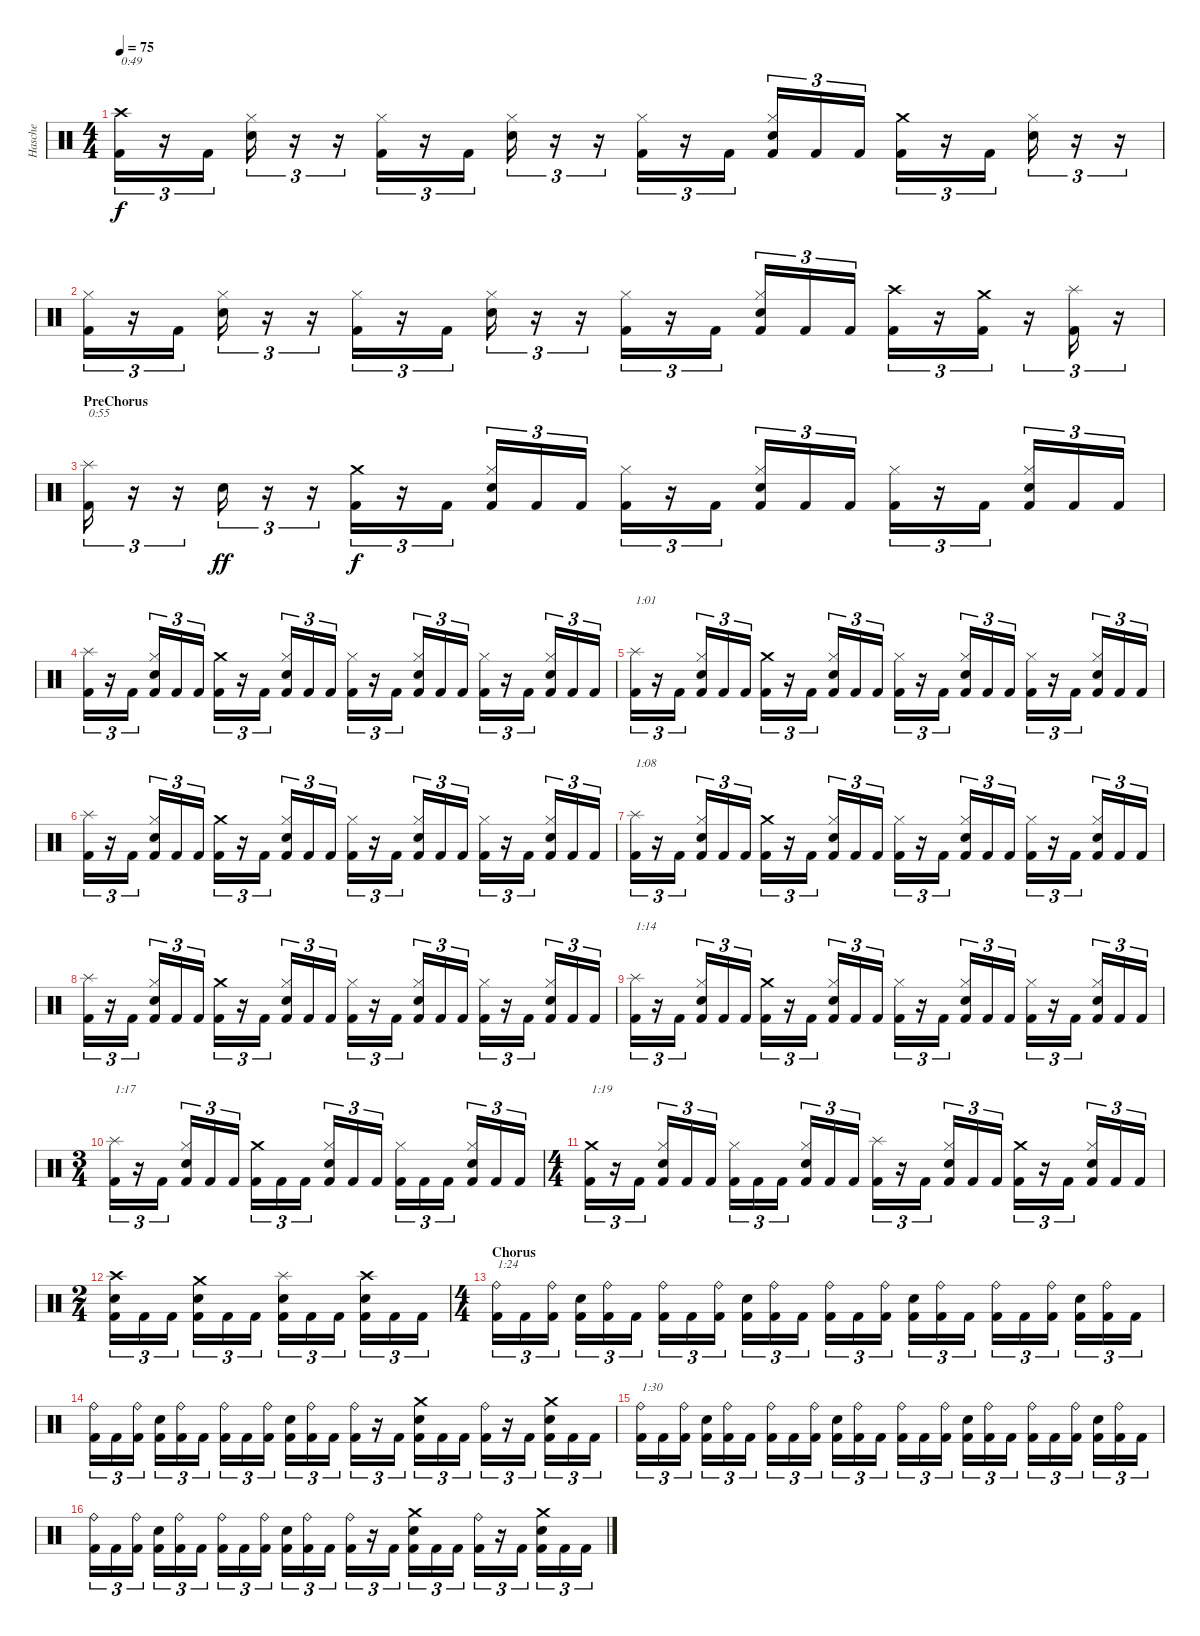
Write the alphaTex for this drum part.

\track ("Hasche" "Hasche") {instrument percussion}
\staff {score}
\articulation defaults
\ts (4 4)
\tempo 75
\clef neutral
\ks c
("Crash high (hit)" "Kick (hit) 2").16{tu (3 2) txt "0:49" dy f} r.16{tu (3 2)} "Kick (hit) 2".16{tu (3 2)} ("Hi-Hat (closed)" "Snare (hit) 2").16{tu (3 2)} r.16{tu (3 2)} r.16{tu (3 2)} ("Hi-Hat (closed)" "Kick (hit) 2").16{tu (3 2)} r.16{tu (3 2)} "Kick (hit) 2".16{tu (3 2)} ("Hi-Hat (closed)" "Snare (hit) 2").16{tu (3 2)} r.16{tu (3 2)} r.16{tu (3 2)} ("Hi-Hat (closed)" "Kick (hit) 2").16{tu (3 2)} r.16{tu (3 2)} "Kick (hit) 2".16{tu (3 2)} ("Hi-Hat (closed)" "Snare (hit) 2" "Kick (hit) 2").16{tu (3 2)} "Kick (hit) 2".16{tu (3 2)} "Kick (hit) 2".16{tu (3 2)} ("Crash medium (hit)" "Kick (hit) 2").16{tu (3 2)} r.16{tu (3 2)} "Kick (hit) 2".16{tu (3 2)} ("Hi-Hat (closed)" "Snare (hit) 2").16{tu (3 2)} r.16{tu (3 2)} r.16{tu (3 2)} |
("Hi-Hat (closed)" "Kick (hit) 2").16{tu (3 2)} r.16{tu (3 2)} "Kick (hit) 2".16{tu (3 2)} ("Hi-Hat (closed)" "Snare (hit) 2").16{tu (3 2)} r.16{tu (3 2)} r.16{tu (3 2)} ("Hi-Hat (closed)" "Kick (hit) 2").16{tu (3 2)} r.16{tu (3 2)} "Kick (hit) 2".16{tu (3 2)} ("Hi-Hat (closed)" "Snare (hit) 2").16{tu (3 2)} r.16{tu (3 2)} r.16{tu (3 2)} ("Hi-Hat (closed)" "Kick (hit) 2").16{tu (3 2)} r.16{tu (3 2)} "Kick (hit) 2".16{tu (3 2)} ("Hi-Hat (closed)" "Snare (hit) 2" "Kick (hit) 2").16{tu (3 2)} "Kick (hit) 2".16{tu (3 2)} "Kick (hit) 2".16{tu (3 2)} ("Crash high (hit)" "Kick (hit) 2").16{tu (3 2)} r.16{tu (3 2)} ("Crash medium (hit)" "Kick (hit) 2").16{tu (3 2)} r.16{tu (3 2)} ("Splash (hit)" "Kick (hit) 2").16{tu (3 2)} r.16{tu (3 2)} |
\section ("" "PreChorus")
("Splash (hit)" "Kick (hit) 2").16{tu (3 2) txt "0:55"} r.16{tu (3 2)} r.16{tu (3 2)} "Snare (hit) 2".16{tu (3 2) dy ff} r.16{tu (3 2)} r.16{tu (3 2)} ("Crash medium (hit)" "Kick (hit) 2").16{tu (3 2) dy f} r.16{tu (3 2)} "Kick (hit) 2".16{tu (3 2)} ("Hi-Hat (closed)" "Snare (hit) 2" "Kick (hit) 2").16{tu (3 2)} "Kick (hit) 2".16{tu (3 2)} "Kick (hit) 2".16{tu (3 2)} ("Hi-Hat (closed)" "Kick (hit) 2").16{tu (3 2)} r.16{tu (3 2)} "Kick (hit) 2".16{tu (3 2)} ("Hi-Hat (closed)" "Snare (hit) 2" "Kick (hit) 2").16{tu (3 2)} "Kick (hit) 2".16{tu (3 2)} "Kick (hit) 2".16{tu (3 2)} ("Hi-Hat (closed)" "Kick (hit) 2").16{tu (3 2)} r.16{tu (3 2)} "Kick (hit) 2".16{tu (3 2)} ("Hi-Hat (closed)" "Snare (hit) 2" "Kick (hit) 2").16{tu (3 2)} "Kick (hit) 2".16{tu (3 2)} "Kick (hit) 2".16{tu (3 2)} |
("Splash (hit)" "Kick (hit) 2").16{tu (3 2)} r.16{tu (3 2)} "Kick (hit) 2".16{tu (3 2)} ("Hi-Hat (closed)" "Snare (hit) 2" "Kick (hit) 2").16{tu (3 2)} "Kick (hit) 2".16{tu (3 2)} "Kick (hit) 2".16{tu (3 2)} ("Crash medium (hit)" "Kick (hit) 2").16{tu (3 2)} r.16{tu (3 2)} "Kick (hit) 2".16{tu (3 2)} ("Hi-Hat (closed)" "Snare (hit) 2" "Kick (hit) 2").16{tu (3 2)} "Kick (hit) 2".16{tu (3 2)} "Kick (hit) 2".16{tu (3 2)} ("Hi-Hat (closed)" "Kick (hit) 2").16{tu (3 2)} r.16{tu (3 2)} "Kick (hit) 2".16{tu (3 2)} ("Hi-Hat (closed)" "Snare (hit) 2" "Kick (hit) 2").16{tu (3 2)} "Kick (hit) 2".16{tu (3 2)} "Kick (hit) 2".16{tu (3 2)} ("Hi-Hat (closed)" "Kick (hit) 2").16{tu (3 2)} r.16{tu (3 2)} "Kick (hit) 2".16{tu (3 2)} ("Hi-Hat (closed)" "Snare (hit) 2" "Kick (hit) 2").16{tu (3 2)} "Kick (hit) 2".16{tu (3 2)} "Kick (hit) 2".16{tu (3 2)} |
("Splash (hit)" "Kick (hit) 2").16{tu (3 2) txt "1:01"} r.16{tu (3 2)} "Kick (hit) 2".16{tu (3 2)} ("Hi-Hat (closed)" "Snare (hit) 2" "Kick (hit) 2").16{tu (3 2)} "Kick (hit) 2".16{tu (3 2)} "Kick (hit) 2".16{tu (3 2)} ("Crash medium (hit)" "Kick (hit) 2").16{tu (3 2)} r.16{tu (3 2)} "Kick (hit) 2".16{tu (3 2)} ("Hi-Hat (closed)" "Snare (hit) 2" "Kick (hit) 2").16{tu (3 2)} "Kick (hit) 2".16{tu (3 2)} "Kick (hit) 2".16{tu (3 2)} ("Hi-Hat (closed)" "Kick (hit) 2").16{tu (3 2)} r.16{tu (3 2)} "Kick (hit) 2".16{tu (3 2)} ("Hi-Hat (closed)" "Snare (hit) 2" "Kick (hit) 2").16{tu (3 2)} "Kick (hit) 2".16{tu (3 2)} "Kick (hit) 2".16{tu (3 2)} ("Hi-Hat (closed)" "Kick (hit) 2").16{tu (3 2)} r.16{tu (3 2)} "Kick (hit) 2".16{tu (3 2)} ("Hi-Hat (closed)" "Snare (hit) 2" "Kick (hit) 2").16{tu (3 2)} "Kick (hit) 2".16{tu (3 2)} "Kick (hit) 2".16{tu (3 2)} |
("Splash (hit)" "Kick (hit) 2").16{tu (3 2)} r.16{tu (3 2)} "Kick (hit) 2".16{tu (3 2)} ("Hi-Hat (closed)" "Snare (hit) 2" "Kick (hit) 2").16{tu (3 2)} "Kick (hit) 2".16{tu (3 2)} "Kick (hit) 2".16{tu (3 2)} ("Crash medium (hit)" "Kick (hit) 2").16{tu (3 2)} r.16{tu (3 2)} "Kick (hit) 2".16{tu (3 2)} ("Hi-Hat (closed)" "Snare (hit) 2" "Kick (hit) 2").16{tu (3 2)} "Kick (hit) 2".16{tu (3 2)} "Kick (hit) 2".16{tu (3 2)} ("Hi-Hat (closed)" "Kick (hit) 2").16{tu (3 2)} r.16{tu (3 2)} "Kick (hit) 2".16{tu (3 2)} ("Hi-Hat (closed)" "Snare (hit) 2" "Kick (hit) 2").16{tu (3 2)} "Kick (hit) 2".16{tu (3 2)} "Kick (hit) 2".16{tu (3 2)} ("Hi-Hat (closed)" "Kick (hit) 2").16{tu (3 2)} r.16{tu (3 2)} "Kick (hit) 2".16{tu (3 2)} ("Hi-Hat (closed)" "Snare (hit) 2" "Kick (hit) 2").16{tu (3 2)} "Kick (hit) 2".16{tu (3 2)} "Kick (hit) 2".16{tu (3 2)} |
("Splash (hit)" "Kick (hit) 2").16{tu (3 2) txt "1:08"} r.16{tu (3 2)} "Kick (hit) 2".16{tu (3 2)} ("Hi-Hat (closed)" "Snare (hit) 2" "Kick (hit) 2").16{tu (3 2)} "Kick (hit) 2".16{tu (3 2)} "Kick (hit) 2".16{tu (3 2)} ("Crash medium (hit)" "Kick (hit) 2").16{tu (3 2)} r.16{tu (3 2)} "Kick (hit) 2".16{tu (3 2)} ("Hi-Hat (closed)" "Snare (hit) 2" "Kick (hit) 2").16{tu (3 2)} "Kick (hit) 2".16{tu (3 2)} "Kick (hit) 2".16{tu (3 2)} ("Hi-Hat (closed)" "Kick (hit) 2").16{tu (3 2)} r.16{tu (3 2)} "Kick (hit) 2".16{tu (3 2)} ("Hi-Hat (closed)" "Snare (hit) 2" "Kick (hit) 2").16{tu (3 2)} "Kick (hit) 2".16{tu (3 2)} "Kick (hit) 2".16{tu (3 2)} ("Hi-Hat (closed)" "Kick (hit) 2").16{tu (3 2)} r.16{tu (3 2)} "Kick (hit) 2".16{tu (3 2)} ("Hi-Hat (closed)" "Snare (hit) 2" "Kick (hit) 2").16{tu (3 2)} "Kick (hit) 2".16{tu (3 2)} "Kick (hit) 2".16{tu (3 2)} |
("Splash (hit)" "Kick (hit) 2").16{tu (3 2)} r.16{tu (3 2)} "Kick (hit) 2".16{tu (3 2)} ("Hi-Hat (closed)" "Snare (hit) 2" "Kick (hit) 2").16{tu (3 2)} "Kick (hit) 2".16{tu (3 2)} "Kick (hit) 2".16{tu (3 2)} ("Crash medium (hit)" "Kick (hit) 2").16{tu (3 2)} r.16{tu (3 2)} "Kick (hit) 2".16{tu (3 2)} ("Hi-Hat (closed)" "Snare (hit) 2" "Kick (hit) 2").16{tu (3 2)} "Kick (hit) 2".16{tu (3 2)} "Kick (hit) 2".16{tu (3 2)} ("Hi-Hat (closed)" "Kick (hit) 2").16{tu (3 2)} r.16{tu (3 2)} "Kick (hit) 2".16{tu (3 2)} ("Hi-Hat (closed)" "Snare (hit) 2" "Kick (hit) 2").16{tu (3 2)} "Kick (hit) 2".16{tu (3 2)} "Kick (hit) 2".16{tu (3 2)} ("Hi-Hat (closed)" "Kick (hit) 2").16{tu (3 2)} r.16{tu (3 2)} "Kick (hit) 2".16{tu (3 2)} ("Hi-Hat (closed)" "Snare (hit) 2" "Kick (hit) 2").16{tu (3 2)} "Kick (hit) 2".16{tu (3 2)} "Kick (hit) 2".16{tu (3 2)} |
("Splash (hit)" "Kick (hit) 2").16{tu (3 2) txt "1:14"} r.16{tu (3 2)} "Kick (hit) 2".16{tu (3 2)} ("Hi-Hat (closed)" "Snare (hit) 2" "Kick (hit) 2").16{tu (3 2)} "Kick (hit) 2".16{tu (3 2)} "Kick (hit) 2".16{tu (3 2)} ("Crash medium (hit)" "Kick (hit) 2").16{tu (3 2)} r.16{tu (3 2)} "Kick (hit) 2".16{tu (3 2)} ("Hi-Hat (closed)" "Snare (hit) 2" "Kick (hit) 2").16{tu (3 2)} "Kick (hit) 2".16{tu (3 2)} "Kick (hit) 2".16{tu (3 2)} ("Hi-Hat (closed)" "Kick (hit) 2").16{tu (3 2)} r.16{tu (3 2)} "Kick (hit) 2".16{tu (3 2)} ("Hi-Hat (closed)" "Snare (hit) 2" "Kick (hit) 2").16{tu (3 2)} "Kick (hit) 2".16{tu (3 2)} "Kick (hit) 2".16{tu (3 2)} ("Hi-Hat (closed)" "Kick (hit) 2").16{tu (3 2)} r.16{tu (3 2)} "Kick (hit) 2".16{tu (3 2)} ("Hi-Hat (closed)" "Snare (hit) 2" "Kick (hit) 2").16{tu (3 2)} "Kick (hit) 2".16{tu (3 2)} "Kick (hit) 2".16{tu (3 2)} |
\ts (3 4)
("Splash (hit)" "Kick (hit) 2").16{tu (3 2) txt "1:17"} r.16{tu (3 2)} "Kick (hit) 2".16{tu (3 2)} ("Hi-Hat (closed)" "Snare (hit) 2" "Kick (hit) 2").16{tu (3 2)} "Kick (hit) 2".16{tu (3 2)} "Kick (hit) 2".16{tu (3 2)} ("Crash medium (hit)" "Kick (hit) 2").16{tu (3 2)} "Kick (hit) 2".16{tu (3 2)} "Kick (hit) 2".16{tu (3 2)} ("Hi-Hat (closed)" "Snare (hit) 2" "Kick (hit) 2").16{tu (3 2)} "Kick (hit) 2".16{tu (3 2)} "Kick (hit) 2".16{tu (3 2)} ("Hi-Hat (closed)" "Kick (hit) 2").16{tu (3 2)} "Kick (hit) 2".16{tu (3 2)} "Kick (hit) 2".16{tu (3 2)} ("Hi-Hat (closed)" "Snare (hit) 2" "Kick (hit) 2").16{tu (3 2)} "Kick (hit) 2".16{tu (3 2)} "Kick (hit) 2".16{tu (3 2)} |
\ts (4 4)
("Crash medium (hit)" "Kick (hit) 2").16{tu (3 2) txt "1:19"} r.16{tu (3 2)} "Kick (hit) 2".16{tu (3 2)} ("Hi-Hat (closed)" "Snare (hit) 2" "Kick (hit) 2").16{tu (3 2)} "Kick (hit) 2".16{tu (3 2)} "Kick (hit) 2".16{tu (3 2)} ("Hi-Hat (closed)" "Kick (hit) 2").16{tu (3 2)} "Kick (hit) 2".16{tu (3 2)} "Kick (hit) 2".16{tu (3 2)} ("Hi-Hat (closed)" "Snare (hit) 2" "Kick (hit) 2").16{tu (3 2)} "Kick (hit) 2".16{tu (3 2)} "Kick (hit) 2".16{tu (3 2)} ("Splash (hit)" "Kick (hit) 2").16{tu (3 2)} r.16{tu (3 2)} "Kick (hit) 2".16{tu (3 2)} ("Hi-Hat (closed)" "Snare (hit) 2" "Kick (hit) 2").16{tu (3 2)} "Kick (hit) 2".16{tu (3 2)} "Kick (hit) 2".16{tu (3 2)} ("Crash medium (hit)" "Kick (hit) 2").16{tu (3 2)} r.16{tu (3 2)} "Kick (hit) 2".16{tu (3 2)} ("Hi-Hat (closed)" "Snare (hit) 2" "Kick (hit) 2").16{tu (3 2)} "Kick (hit) 2".16{tu (3 2)} "Kick (hit) 2".16{tu (3 2)} |
\ts (2 4)
("Crash high (hit)" "Snare (hit) 2" "Kick (hit) 2").16{tu (3 2)} "Kick (hit) 2".16{tu (3 2)} "Kick (hit) 2".16{tu (3 2)} ("Crash medium (hit)" "Snare (hit) 2" "Kick (hit) 2").16{tu (3 2)} "Kick (hit) 2".16{tu (3 2)} "Kick (hit) 2".16{tu (3 2)} ("Splash (hit)" "Snare (hit) 2" "Kick (hit) 2").16{tu (3 2)} "Kick (hit) 2".16{tu (3 2)} "Kick (hit) 2".16{tu (3 2)} ("Crash high (hit)" "Snare (hit) 2" "Kick (hit) 2").16{tu (3 2)} "Kick (hit) 2".16{tu (3 2)} "Kick (hit) 2".16{tu (3 2)} |
\ts (4 4)
\section ("" "Chorus")
("Ride (bell)" "Kick (hit) 2").16{tu (3 2) txt "1:24"} "Kick (hit) 2".16{tu (3 2)} ("Ride (bell)" "Kick (hit) 2").16{tu (3 2)} ("Snare (hit) 2" "Kick (hit) 2").16{tu (3 2)} ("Ride (bell)" "Kick (hit) 2").16{tu (3 2)} "Kick (hit) 2".16{tu (3 2)} ("Ride (bell)" "Kick (hit) 2").16{tu (3 2)} "Kick (hit) 2".16{tu (3 2)} ("Ride (bell)" "Kick (hit) 2").16{tu (3 2)} ("Snare (hit) 2" "Kick (hit) 2").16{tu (3 2)} ("Ride (bell)" "Kick (hit) 2").16{tu (3 2)} "Kick (hit) 2".16{tu (3 2)} ("Ride (bell)" "Kick (hit) 2").16{tu (3 2)} "Kick (hit) 2".16{tu (3 2)} ("Ride (bell)" "Kick (hit) 2").16{tu (3 2)} ("Snare (hit) 2" "Kick (hit) 2").16{tu (3 2)} ("Ride (bell)" "Kick (hit) 2").16{tu (3 2)} "Kick (hit) 2".16{tu (3 2)} ("Ride (bell)" "Kick (hit) 2").16{tu (3 2)} "Kick (hit) 2".16{tu (3 2)} ("Ride (bell)" "Kick (hit) 2").16{tu (3 2)} ("Snare (hit) 2" "Kick (hit) 2").16{tu (3 2)} ("Ride (bell)" "Kick (hit) 2").16{tu (3 2)} "Kick (hit) 2".16{tu (3 2)} |
("Ride (bell)" "Kick (hit) 2").16{tu (3 2)} "Kick (hit) 2".16{tu (3 2)} ("Ride (bell)" "Kick (hit) 2").16{tu (3 2)} ("Snare (hit) 2" "Kick (hit) 2").16{tu (3 2)} ("Ride (bell)" "Kick (hit) 2").16{tu (3 2)} "Kick (hit) 2".16{tu (3 2)} ("Ride (bell)" "Kick (hit) 2").16{tu (3 2)} "Kick (hit) 2".16{tu (3 2)} ("Ride (bell)" "Kick (hit) 2").16{tu (3 2)} ("Snare (hit) 2" "Kick (hit) 2").16{tu (3 2)} ("Ride (bell)" "Kick (hit) 2").16{tu (3 2)} "Kick (hit) 2".16{tu (3 2)} ("Ride (bell)" "Kick (hit) 2").16{tu (3 2)} r.16{tu (3 2)} "Kick (hit) 2".16{tu (3 2)} ("Crash medium (hit)" "Snare (hit) 2" "Kick (hit) 2").16{tu (3 2)} "Kick (hit) 2".16{tu (3 2)} "Kick (hit) 2".16{tu (3 2)} ("Ride (bell)" "Kick (hit) 2").16{tu (3 2)} r.16{tu (3 2)} "Kick (hit) 2".16{tu (3 2)} ("Crash medium (hit)" "Snare (hit) 2" "Kick (hit) 2").16{tu (3 2)} "Kick (hit) 2".16{tu (3 2)} "Kick (hit) 2".16{tu (3 2)} |
("Ride (bell)" "Kick (hit) 2").16{tu (3 2) txt "1:30"} "Kick (hit) 2".16{tu (3 2)} ("Ride (bell)" "Kick (hit) 2").16{tu (3 2)} ("Snare (hit) 2" "Kick (hit) 2").16{tu (3 2)} ("Ride (bell)" "Kick (hit) 2").16{tu (3 2)} "Kick (hit) 2".16{tu (3 2)} ("Ride (bell)" "Kick (hit) 2").16{tu (3 2)} "Kick (hit) 2".16{tu (3 2)} ("Ride (bell)" "Kick (hit) 2").16{tu (3 2)} ("Snare (hit) 2" "Kick (hit) 2").16{tu (3 2)} ("Ride (bell)" "Kick (hit) 2").16{tu (3 2)} "Kick (hit) 2".16{tu (3 2)} ("Ride (bell)" "Kick (hit) 2").16{tu (3 2)} "Kick (hit) 2".16{tu (3 2)} ("Ride (bell)" "Kick (hit) 2").16{tu (3 2)} ("Snare (hit) 2" "Kick (hit) 2").16{tu (3 2)} ("Ride (bell)" "Kick (hit) 2").16{tu (3 2)} "Kick (hit) 2".16{tu (3 2)} ("Ride (bell)" "Kick (hit) 2").16{tu (3 2)} "Kick (hit) 2".16{tu (3 2)} ("Ride (bell)" "Kick (hit) 2").16{tu (3 2)} ("Snare (hit) 2" "Kick (hit) 2").16{tu (3 2)} ("Ride (bell)" "Kick (hit) 2").16{tu (3 2)} "Kick (hit) 2".16{tu (3 2)} |
("Ride (bell)" "Kick (hit) 2").16{tu (3 2)} "Kick (hit) 2".16{tu (3 2)} ("Ride (bell)" "Kick (hit) 2").16{tu (3 2)} ("Snare (hit) 2" "Kick (hit) 2").16{tu (3 2)} ("Ride (bell)" "Kick (hit) 2").16{tu (3 2)} "Kick (hit) 2".16{tu (3 2)} ("Ride (bell)" "Kick (hit) 2").16{tu (3 2)} "Kick (hit) 2".16{tu (3 2)} ("Ride (bell)" "Kick (hit) 2").16{tu (3 2)} ("Snare (hit) 2" "Kick (hit) 2").16{tu (3 2)} ("Ride (bell)" "Kick (hit) 2").16{tu (3 2)} "Kick (hit) 2".16{tu (3 2)} ("Ride (bell)" "Kick (hit) 2").16{tu (3 2)} r.16{tu (3 2)} "Kick (hit) 2".16{tu (3 2)} ("Crash medium (hit)" "Snare (hit) 2" "Kick (hit) 2").16{tu (3 2)} "Kick (hit) 2".16{tu (3 2)} "Kick (hit) 2".16{tu (3 2)} ("Ride (bell)" "Kick (hit) 2").16{tu (3 2)} r.16{tu (3 2)} "Kick (hit) 2".16{tu (3 2)} ("Crash medium (hit)" "Snare (hit) 2" "Kick (hit) 2").16{tu (3 2)} "Kick (hit) 2".16{tu (3 2)} "Kick (hit) 2".16{tu (3 2)}
